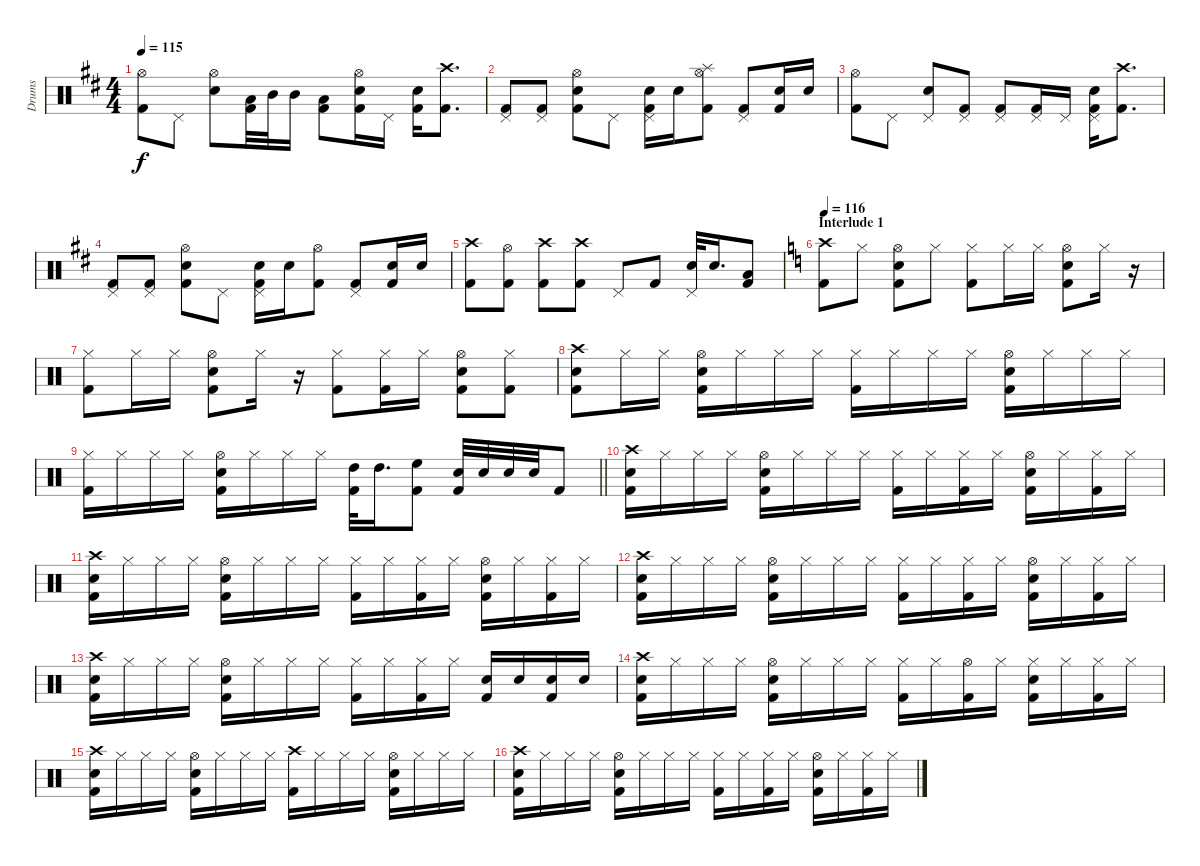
\track ("Drums" "Drums") {instrument percussion}
\staff {score}
\articulation defaults
\ts (4 4)
\tempo 115
\clef neutral
\ks d
("Hi-Hat (open)" "Kick (hit) 2").8{dy f} "Pedal Hi-Hat (hit)".8 ("Snare (hit) 2" "Hi-Hat (open)").8 ("Kick (hit) 2" "Low Tom (hit)").32 "Mid Tom (hit)".32 "Mid Tom (hit)".16 ("Kick (hit) 2" "Low Floor Tom (hit)").8 ("Snare (hit) 2" "Hi-Hat (open)" "Kick (hit) 2").16 "Pedal Hi-Hat (hit)".16 ("Kick (hit) 2" "Snare (hit) 2").16 ("Kick (hit) 2" "Crash high (hit)").8{d} |
("Pedal Hi-Hat (hit)" "Kick (hit) 2").8 ("Kick (hit) 2" "Pedal Hi-Hat (hit)").8 ("Snare (hit) 2" "Hi-Hat (open)" "Kick (hit) 2").8 "Pedal Hi-Hat (hit)".8 ("Kick (hit) 2" "Snare (hit) 2" "Pedal Hi-Hat (hit)").16 "Snare (hit) 2".16 ("Kick (hit) 2" "Splash (hit)" "Hi-Hat (open)").8 ("Kick (hit) 2" "Pedal Hi-Hat (hit)").8 ("Kick (hit) 2" "Snare (hit) 2").16 "Snare (hit) 2".16 |
("Hi-Hat (open)" "Kick (hit) 2").8 "Pedal Hi-Hat (hit)".8 ("Snare (hit) 2" "Pedal Hi-Hat (hit)").8 ("Kick (hit) 2" "Pedal Hi-Hat (hit)").8 ("Kick (hit) 2" "Pedal Hi-Hat (hit)").8 ("Pedal Hi-Hat (hit)" "Kick (hit) 2").16 "Pedal Hi-Hat (hit)".16 ("Pedal Hi-Hat (hit)" "Kick (hit) 2" "Snare (hit) 2").16 ("Kick (hit) 2" "Crash high (hit)").8{d} |
("Pedal Hi-Hat (hit)" "Kick (hit) 2").8 ("Kick (hit) 2" "Pedal Hi-Hat (hit)").8 ("Snare (hit) 2" "Hi-Hat (open)" "Kick (hit) 2").8 "Pedal Hi-Hat (hit)".8 ("Kick (hit) 2" "Snare (hit) 2" "Pedal Hi-Hat (hit)").16 "Snare (hit) 2".16 ("Kick (hit) 2" "Hi-Hat (open)").8 ("Kick (hit) 2" "Pedal Hi-Hat (hit)").8 ("Kick (hit) 2" "Snare (hit) 2").16 "Snare (hit) 2".16 |
("Crash high (hit)" "Kick (hit) 2").8 ("Kick (hit) 2" "Hi-Hat (open)").8 ("Kick (hit) 2" "Crash high (hit)").8 ("Kick (hit) 2" "Crash high (hit)").8 "Pedal Hi-Hat (hit)".8 "Kick (hit) 2".8 ("Pedal Hi-Hat (hit)" "Snare (hit) 2").32 "Snare (hit) 2".16{d} ("Low Floor Tom (hit)" "Kick (hit) 2").8 |
\section ("" "Interlude 1")
\tempo 116
\ks c
("Kick (hit) 2" "Crash high (hit)").8 "Hi-Hat (closed)".8 ("Kick (hit) 2" "Hi-Hat (open)" "Snare (hit) 2").8 "Hi-Hat (closed)".8 ("Kick (hit) 2" "Hi-Hat (closed)").8 "Hi-Hat (closed)".16 "Hi-Hat (closed)".16 ("Kick (hit) 2" "Snare (hit) 2" "Hi-Hat (open)").8 "Hi-Hat (closed)".16 r.16 |
("Hi-Hat (closed)" "Kick (hit) 2").8 "Hi-Hat (closed)".16 "Hi-Hat (closed)".16 ("Snare (hit) 2" "Kick (hit) 2" "Hi-Hat (open)").8 "Hi-Hat (closed)".16 r.16 ("Kick (hit) 2" "Hi-Hat (closed)").8 ("Kick (hit) 2" "Hi-Hat (closed)").16 "Hi-Hat (closed)".16 ("Snare (hit) 2" "Kick (hit) 2" "Hi-Hat (open)").8 ("Kick (hit) 2" "Hi-Hat (closed)").8 |
("Kick (hit) 2" "Snare (hit) 2" "Crash high (hit)").8 "Hi-Hat (closed)".16 "Hi-Hat (closed)".16 ("Hi-Hat (open)" "Kick (hit) 2" "Snare (hit) 2").16 "Hi-Hat (closed)".16 "Hi-Hat (closed)".16 "Hi-Hat (closed)".16 ("Kick (hit) 2" "Hi-Hat (closed)").16 "Hi-Hat (closed)".16 "Hi-Hat (closed)".16 "Hi-Hat (closed)".16 ("Snare (hit) 2" "Kick (hit) 2" "Hi-Hat (open)").16 "Hi-Hat (closed)".16 "Hi-Hat (closed)".16 "Hi-Hat (closed)".16 |
\barLineRight lightlight
("Kick (hit) 2" "Hi-Hat (closed)").16 "Hi-Hat (closed)".16 "Hi-Hat (closed)".16 "Hi-Hat (closed)".16 ("Snare (hit) 2" "Hi-Hat (open)" "Kick (hit) 2").16 "Hi-Hat (closed)".16 "Hi-Hat (closed)".16 "Hi-Hat (closed)".16 ("High Tom (hit)" "Kick (hit) 2").32 "High Tom (hit)".16{d} ("High Floor Tom (hit)" "Kick (hit) 2").8 ("Snare (hit) 2" "Kick (hit) 2").32 "Snare (hit) 2".32 "Snare (hit) 2".32 "Snare (hit) 2".32 "Kick (hit) 2".8 |
("Kick (hit) 2" "Snare (hit) 2" "Crash high (hit)").16 "Hi-Hat (closed)".16 "Hi-Hat (closed)".16 "Hi-Hat (closed)".16 ("Hi-Hat (open)" "Kick (hit) 2" "Snare (hit) 2").16 "Hi-Hat (closed)".16 "Hi-Hat (closed)".16 "Hi-Hat (closed)".16 ("Kick (hit) 2" "Hi-Hat (closed)").16 "Hi-Hat (closed)".16 ("Kick (hit) 2" "Hi-Hat (closed)").16 "Hi-Hat (closed)".16 ("Snare (hit) 2" "Kick (hit) 2" "Hi-Hat (open)").16 "Hi-Hat (closed)".16 ("Hi-Hat (closed)" "Kick (hit) 2").16 "Hi-Hat (closed)".16 |
("Kick (hit) 2" "Snare (hit) 2" "Crash high (hit)").16 "Hi-Hat (closed)".16 "Hi-Hat (closed)".16 "Hi-Hat (closed)".16 ("Hi-Hat (open)" "Kick (hit) 2" "Snare (hit) 2").16 "Hi-Hat (closed)".16 "Hi-Hat (closed)".16 "Hi-Hat (closed)".16 ("Kick (hit) 2" "Hi-Hat (closed)").16 "Hi-Hat (closed)".16 ("Hi-Hat (closed)" "Kick (hit) 2").16 "Hi-Hat (closed)".16 ("Snare (hit) 2" "Kick (hit) 2" "Hi-Hat (open)").16 "Hi-Hat (closed)".16 ("Kick (hit) 2" "Hi-Hat (closed)").16 "Hi-Hat (closed)".16 |
("Kick (hit) 2" "Snare (hit) 2" "Crash high (hit)").16 "Hi-Hat (closed)".16 "Hi-Hat (closed)".16 "Hi-Hat (closed)".16 ("Hi-Hat (open)" "Kick (hit) 2" "Snare (hit) 2").16 "Hi-Hat (closed)".16 "Hi-Hat (closed)".16 "Hi-Hat (closed)".16 ("Kick (hit) 2" "Hi-Hat (closed)").16 "Hi-Hat (closed)".16 ("Kick (hit) 2" "Hi-Hat (closed)").16 "Hi-Hat (closed)".16 ("Snare (hit) 2" "Kick (hit) 2" "Hi-Hat (open)").16 "Hi-Hat (closed)".16 ("Kick (hit) 2" "Hi-Hat (closed)").16 "Hi-Hat (closed)".16 |
("Kick (hit) 2" "Snare (hit) 2" "Crash high (hit)").16 "Hi-Hat (closed)".16 "Hi-Hat (closed)".16 "Hi-Hat (closed)".16 ("Hi-Hat (open)" "Kick (hit) 2" "Snare (hit) 2").16 "Hi-Hat (closed)".16 "Hi-Hat (closed)".16 "Hi-Hat (closed)".16 ("Kick (hit) 2" "Hi-Hat (closed)").16 "Hi-Hat (closed)".16 ("Kick (hit) 2" "Hi-Hat (closed)").16 "Hi-Hat (closed)".16 ("Snare (hit) 2" "Kick (hit) 2").16 "Snare (hit) 2".16 ("Snare (hit) 2" "Kick (hit) 2").16 "Snare (hit) 2".16 |
("Kick (hit) 2" "Snare (hit) 2" "Crash high (hit)").16 "Hi-Hat (closed)".16 "Hi-Hat (closed)".16 "Hi-Hat (closed)".16 ("Hi-Hat (open)" "Kick (hit) 2" "Snare (hit) 2").16 "Hi-Hat (closed)".16 "Hi-Hat (closed)".16 "Hi-Hat (closed)".16 ("Kick (hit) 2" "Hi-Hat (closed)").16 "Hi-Hat (closed)".16 ("Kick (hit) 2" "Hi-Hat (open)").16 "Hi-Hat (closed)".16 ("Snare (hit) 2" "Kick (hit) 2" "Hi-Hat (closed)").16 "Hi-Hat (closed)".16 ("Kick (hit) 2" "Hi-Hat (closed)").16 "Hi-Hat (closed)".16 |
("Kick (hit) 2" "Snare (hit) 2" "Crash high (hit)").16 "Hi-Hat (closed)".16 "Hi-Hat (closed)".16 "Hi-Hat (closed)".16 ("Hi-Hat (open)" "Kick (hit) 2" "Snare (hit) 2").16 "Hi-Hat (closed)".16 "Hi-Hat (closed)".16 "Hi-Hat (closed)".16 ("Kick (hit) 2" "Crash high (hit)").16 "Hi-Hat (closed)".16 "Hi-Hat (closed)".16 "Hi-Hat (closed)".16 ("Snare (hit) 2" "Kick (hit) 2" "Hi-Hat (open)").16 "Hi-Hat (closed)".16 "Hi-Hat (closed)".16 "Hi-Hat (closed)".16 |
("Kick (hit) 2" "Snare (hit) 2" "Crash high (hit)").16 "Hi-Hat (closed)".16 "Hi-Hat (closed)".16 "Hi-Hat (closed)".16 ("Hi-Hat (open)" "Kick (hit) 2" "Snare (hit) 2").16 "Hi-Hat (closed)".16 "Hi-Hat (closed)".16 "Hi-Hat (closed)".16 ("Kick (hit) 2" "Hi-Hat (closed)").16 "Hi-Hat (closed)".16 ("Kick (hit) 2" "Hi-Hat (closed)").16 "Hi-Hat (closed)".16 ("Snare (hit) 2" "Kick (hit) 2" "Hi-Hat (open)").16 "Hi-Hat (closed)".16 ("Kick (hit) 2" "Hi-Hat (closed)").16 "Hi-Hat (closed)".16
